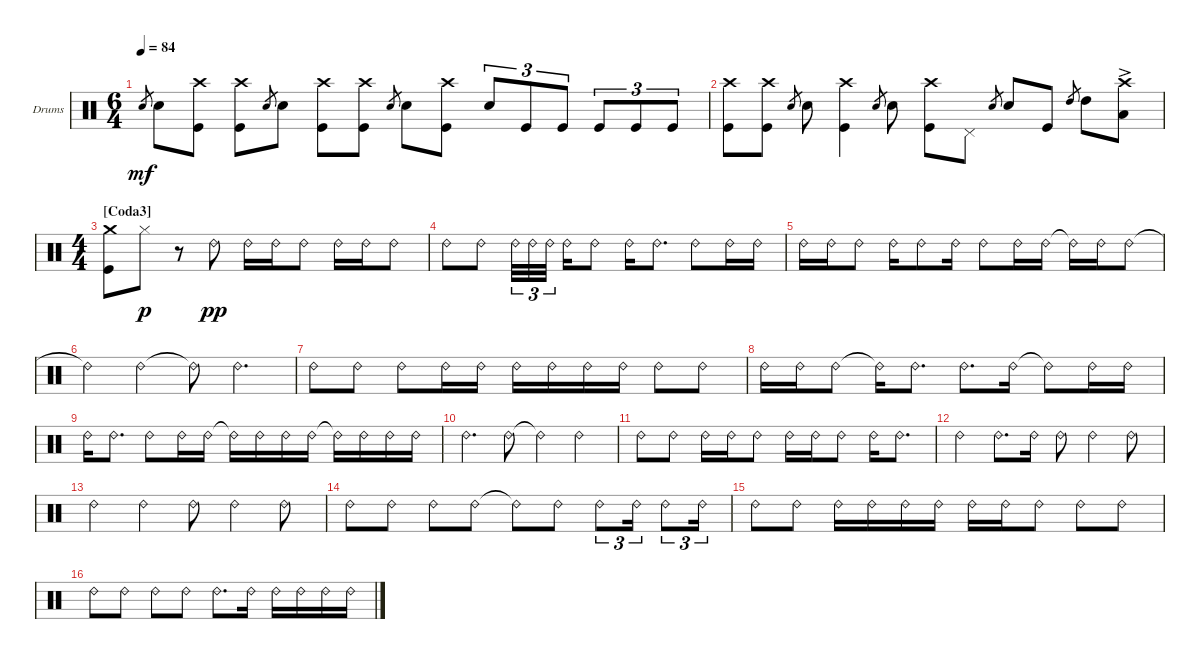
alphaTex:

\defaultSystemsLayout 4
\bracketExtendMode groupsimilarinstruments
\firstSystemTrackNameOrientation horizontal
\otherSystemsTrackNameOrientation horizontal
\track ("Drumkit" "Drums") {instrument percussion}
\staff {score}
\articulation defaults
\ts (6 4)
\tempo 84
\clef neutral
\ks aminor "Snare (hit) 2".8{gr dy mf} "Snare (hit) 2".8
("Kick (hit)" "Crash high (hit)").8 ("Kick (hit)" "Crash high (hit)").8 "Snare (hit) 2".8{gr} "Snare (hit) 2".8 ("Kick (hit)" "Crash high (hit)").8 ("Kick (hit)" "Crash high (hit)").8 "Snare (hit) 2".8{gr} "Snare (hit) 2".8 ("Kick (hit)" "Crash high (hit)").8 "Snare (hit) 2".8{tu (3 2)} "Kick (hit)".8{tu (3 2)} "Kick (hit)".8{tu (3 2)} "Kick (hit)".8{tu (3 2)} "Kick (hit)".8{tu (3 2)} "Kick (hit)".8{tu (3 2)} |
("Kick (hit)" "Crash high (hit)").8 ("Kick (hit)" "Crash high (hit)").8 "Snare (hit) 2".8{gr} "Snare (hit) 2".8 ("Kick (hit)" "Crash high (hit)").4 "Snare (hit) 2".8{gr} "Snare (hit) 2".8 ("Kick (hit)" "Crash high (hit)").8 "Pedal Hi-Hat (hit)".8 "Snare (hit) 2".8{gr} "Snare (hit) 2".8 "Kick (hit)".8 "High Tom (hit)".8{gr} "High Tom (hit)".8 ("Low Tom (hit)"{ac} "Crash high (hit)").8 |
\ts (4 4)
\section ("" "[Coda3]")
("Kick (hit)" "Crash medium (hit)").8 "Hi-Hat (closed)".8{dy p} r.8 "Ride (bell) 2".8{dy pp} "Ride (bell) 2".16 "Ride (bell) 2".16 "Ride (bell) 2".8 "Ride (bell) 2".16 "Ride (bell) 2".16 "Ride (bell) 2".8 |
"Ride (bell) 2".8 "Ride (bell) 2".8 "Ride (bell) 2".32{tu (3 2)} "Ride (bell) 2".32{tu (3 2)} "Ride (bell) 2".32{tu (3 2)} "Ride (bell) 2".16 "Ride (bell) 2".8 "Ride (bell) 2".16 "Ride (bell) 2".8{d} "Ride (bell) 2".8 "Ride (bell) 2".16 "Ride (bell) 2".16 |
"Ride (bell) 2".16 "Ride (bell) 2".16 "Ride (bell) 2".8 "Ride (bell) 2".16 "Ride (bell) 2".8 "Ride (bell) 2".16 "Ride (bell) 2".8 "Ride (bell) 2".16 "Ride (bell) 2".16 "Ride (bell) 2"{t}.16 "Ride (bell) 2".16 "Ride (bell) 2".8 |
"Ride (bell) 2"{t}.4 "Ride (bell) 2".4 "Ride (bell) 2"{t}.8 "Ride (bell) 2".4{d} |
"Ride (bell) 2".8 "Ride (bell) 2".8 "Ride (bell) 2".8 "Ride (bell) 2".16 "Ride (bell) 2".16 "Ride (bell) 2".16 "Ride (bell) 2".16 "Ride (bell) 2".16 "Ride (bell) 2".16 "Ride (bell) 2".8 "Ride (bell) 2".8 |
"Ride (bell) 2".16 "Ride (bell) 2".16 "Ride (bell) 2".8 "Ride (bell) 2"{t}.16 "Ride (bell) 2".8{d} "Ride (bell) 2".8{d} "Ride (bell) 2".16 "Ride (bell) 2"{t}.8 "Ride (bell) 2".16 "Ride (bell) 2".16 |
"Ride (bell) 2".16 "Ride (bell) 2".8{d} "Ride (bell) 2".8 "Ride (bell) 2".16 "Ride (bell) 2".16 "Ride (bell) 2"{t}.16 "Ride (bell) 2".16 "Ride (bell) 2".16 "Ride (bell) 2".16 "Ride (bell) 2"{t}.16 "Ride (bell) 2".16 "Ride (bell) 2".16 "Ride (bell) 2".16 |
"Ride (bell) 2".4{d} "Ride (bell) 2".8 "Ride (bell) 2"{t}.4 "Ride (bell) 2".4 |
"Ride (bell) 2".8 "Ride (bell) 2".8 "Ride (bell) 2".16 "Ride (bell) 2".16 "Ride (bell) 2".8 "Ride (bell) 2".16 "Ride (bell) 2".16 "Ride (bell) 2".8 "Ride (bell) 2".16 "Ride (bell) 2".8{d} |
"Ride (bell) 2".4 "Ride (bell) 2".8{d} "Ride (bell) 2".16 "Ride (bell) 2".8 "Ride (bell) 2".4 "Ride (bell) 2".8 |
"Ride (bell) 2".4 "Ride (bell) 2".4 "Ride (bell) 2".8 "Ride (bell) 2".4 "Ride (bell) 2".8 |
"Ride (bell) 2".8 "Ride (bell) 2".8 "Ride (bell) 2".8 "Ride (bell) 2".8 "Ride (bell) 2"{t}.8 "Ride (bell) 2".8 "Ride (bell) 2".8{tu (3 2)} "Ride (bell) 2".16{tu (3 2)} "Ride (bell) 2".8{tu (3 2)} "Ride (bell) 2".16{tu (3 2)} |
"Ride (bell) 2".8 "Ride (bell) 2".8 "Ride (bell) 2".16 "Ride (bell) 2".16 "Ride (bell) 2".16 "Ride (bell) 2".16 "Ride (bell) 2".16 "Ride (bell) 2".16 "Ride (bell) 2".8 "Ride (bell) 2".8 "Ride (bell) 2".8 |
"Ride (bell) 2".8 "Ride (bell) 2".8 "Ride (bell) 2".8 "Ride (bell) 2".8 "Ride (bell) 2".8{d} "Ride (bell) 2".16 "Ride (bell) 2".16 "Ride (bell) 2".16 "Ride (bell) 2".16 "Ride (bell) 2".16
